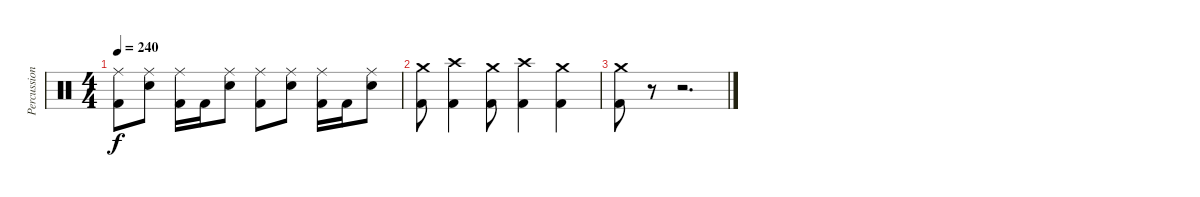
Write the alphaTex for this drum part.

\track ("Percussion" "Percussion") {instrument percussion}
\staff {score}
\articulation defaults
\ts (4 4)
\tempo 240
\clef neutral
\ks c
("Ride (middle)" "Kick (hit) 2").8{dy f} ("Ride (middle)" "Electric Snare (hit)").8 ("Ride (middle)" "Kick (hit) 2").16 "Kick (hit) 2".16 ("Ride (middle)" "Electric Snare (hit)").8 ("Ride (middle)" "Kick (hit) 2").8 ("Ride (middle)" "Electric Snare (hit)").8 ("Ride (middle)" "Kick (hit) 2").16 "Kick (hit) 2".16 ("Ride (middle)" "Electric Snare (hit)").8 |
("Crash medium (hit)" "Kick (hit) 2").8 ("Crash high (hit)" "Kick (hit) 2").4 ("Crash medium (hit)" "Kick (hit) 2").8 ("Crash high (hit)" "Kick (hit) 2").4 ("Crash medium (hit)" "Kick (hit) 2").4 |
("Crash medium (hit)" "Kick (hit) 2").8 r.8 r.2{d}
